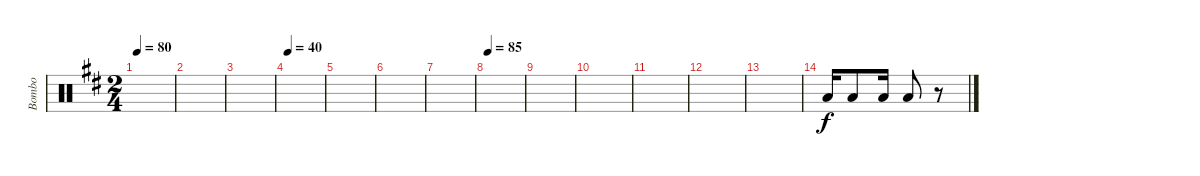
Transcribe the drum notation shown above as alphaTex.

\track ("Bombo" "Bombo") {instrument percussion}
\staff {score}
\articulation defaults
\ts (2 4)
\tempo 80
\clef neutral
\ks d
|
|
|
\tempo 40
|
|
|
|
\tempo 85
|
|
|
|
|
|
"Low Floor Tom (hit)".16 "Low Floor Tom (hit)".8 "Low Floor Tom (hit)".16 "Low Floor Tom (hit)".8 r.8
